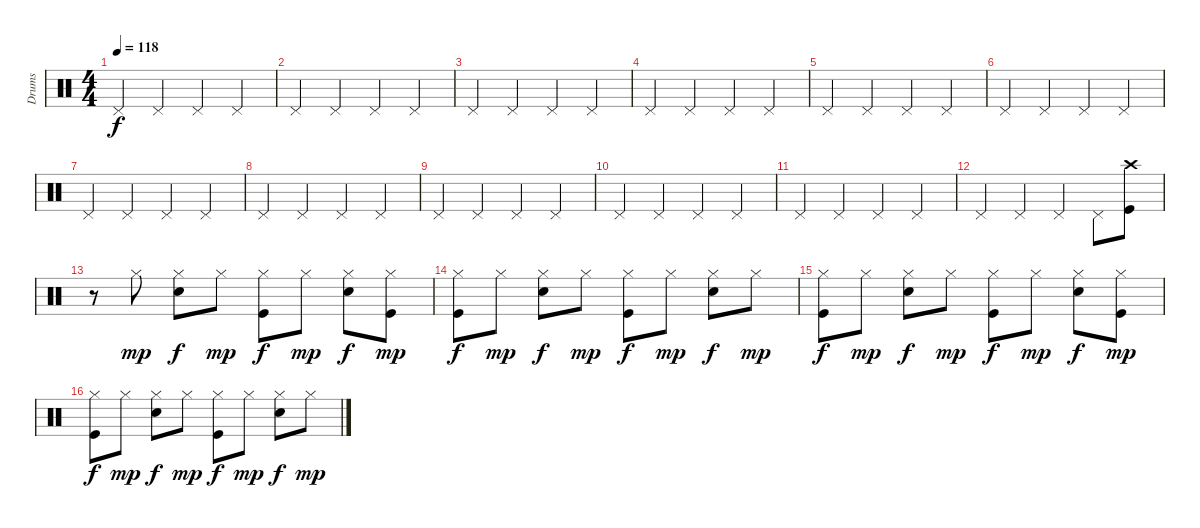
\track ("Drums" "Drums") {instrument percussion}
\staff {score}
\articulation defaults
\ts (4 4)
\tempo 118
\clef neutral
\ks c "Pedal Hi-Hat (hit)".4{dy f} "Pedal Hi-Hat (hit)".4 "Pedal Hi-Hat (hit)".4 "Pedal Hi-Hat (hit)".4
|
"Pedal Hi-Hat (hit)".4 "Pedal Hi-Hat (hit)".4 "Pedal Hi-Hat (hit)".4 "Pedal Hi-Hat (hit)".4 |
"Pedal Hi-Hat (hit)".4 "Pedal Hi-Hat (hit)".4 "Pedal Hi-Hat (hit)".4 "Pedal Hi-Hat (hit)".4 |
"Pedal Hi-Hat (hit)".4 "Pedal Hi-Hat (hit)".4 "Pedal Hi-Hat (hit)".4 "Pedal Hi-Hat (hit)".4 |
"Pedal Hi-Hat (hit)".4 "Pedal Hi-Hat (hit)".4 "Pedal Hi-Hat (hit)".4 "Pedal Hi-Hat (hit)".4 |
"Pedal Hi-Hat (hit)".4 "Pedal Hi-Hat (hit)".4 "Pedal Hi-Hat (hit)".4 "Pedal Hi-Hat (hit)".4 |
"Pedal Hi-Hat (hit)".4 "Pedal Hi-Hat (hit)".4 "Pedal Hi-Hat (hit)".4 "Pedal Hi-Hat (hit)".4 |
"Pedal Hi-Hat (hit)".4 "Pedal Hi-Hat (hit)".4 "Pedal Hi-Hat (hit)".4 "Pedal Hi-Hat (hit)".4 |
"Pedal Hi-Hat (hit)".4 "Pedal Hi-Hat (hit)".4 "Pedal Hi-Hat (hit)".4 "Pedal Hi-Hat (hit)".4 |
"Pedal Hi-Hat (hit)".4 "Pedal Hi-Hat (hit)".4 "Pedal Hi-Hat (hit)".4 "Pedal Hi-Hat (hit)".4 |
"Pedal Hi-Hat (hit)".4 "Pedal Hi-Hat (hit)".4 "Pedal Hi-Hat (hit)".4 "Pedal Hi-Hat (hit)".4 |
"Pedal Hi-Hat (hit)".4 "Pedal Hi-Hat (hit)".4 "Pedal Hi-Hat (hit)".4 "Pedal Hi-Hat (hit)".8 ("Crash high (hit)" "Kick (hit)").8 |
r.8 "Hi-Hat (closed)".8{dy mp} ("Hi-Hat (closed)" "Snare (hit) 2").8{dy f} "Hi-Hat (closed)".8{dy mp} ("Hi-Hat (closed)" "Kick (hit)").8{dy f} "Hi-Hat (closed)".8{dy mp} ("Hi-Hat (closed)" "Snare (hit) 2").8{dy f} ("Hi-Hat (closed)" "Kick (hit)").8{dy mp} |
("Hi-Hat (closed)" "Kick (hit)").8{dy f} "Hi-Hat (closed)".8{dy mp} ("Hi-Hat (closed)" "Snare (hit) 2").8{dy f} "Hi-Hat (closed)".8{dy mp} ("Hi-Hat (closed)" "Kick (hit)").8{dy f} "Hi-Hat (closed)".8{dy mp} ("Hi-Hat (closed)" "Snare (hit) 2").8{dy f} "Hi-Hat (closed)".8{dy mp} |
("Hi-Hat (closed)" "Kick (hit)").8{dy f} "Hi-Hat (closed)".8{dy mp} ("Hi-Hat (closed)" "Snare (hit) 2").8{dy f} "Hi-Hat (closed)".8{dy mp} ("Hi-Hat (closed)" "Kick (hit)").8{dy f} "Hi-Hat (closed)".8{dy mp} ("Hi-Hat (closed)" "Snare (hit) 2").8{dy f} ("Hi-Hat (closed)" "Kick (hit)").8{dy mp} |
("Hi-Hat (closed)" "Kick (hit)").8{dy f} "Hi-Hat (closed)".8{dy mp} ("Hi-Hat (closed)" "Snare (hit) 2").8{dy f} "Hi-Hat (closed)".8{dy mp} ("Hi-Hat (closed)" "Kick (hit)").8{dy f} "Hi-Hat (closed)".8{dy mp} ("Hi-Hat (closed)" "Snare (hit) 2").8{dy f} "Hi-Hat (closed)".8{dy mp}
